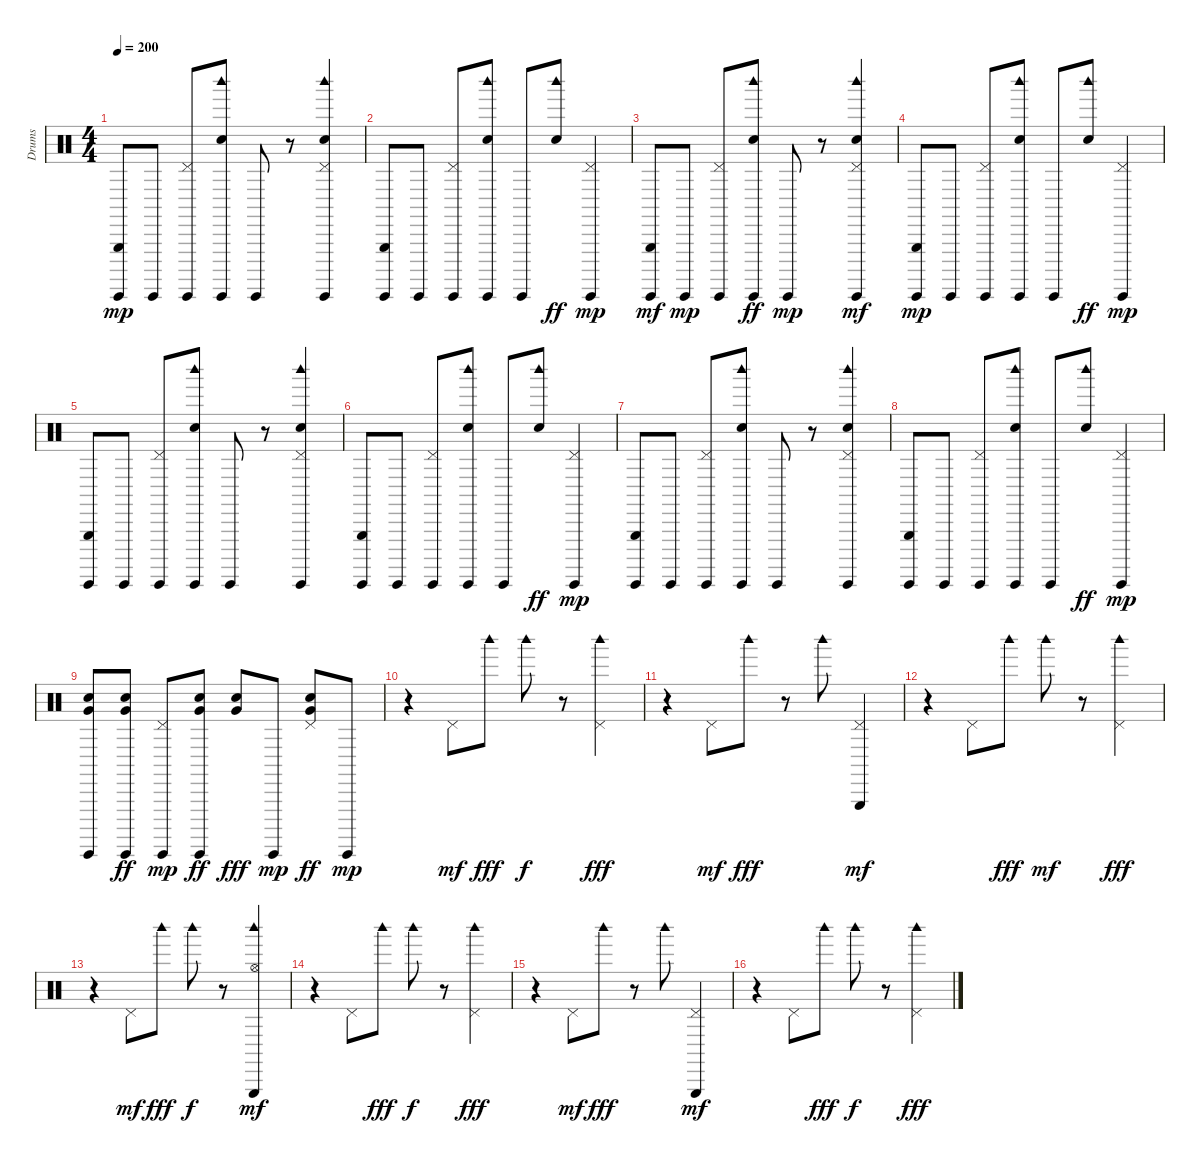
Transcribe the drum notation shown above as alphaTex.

\track ("Drums" "Drums") {instrument percussion}
\staff {score}
\articulation defaults
\ts (4 4)
\tempo 200
\clef neutral
\ks c
("Triangle (hit)" "Guiro (hit)").8{dy mp} "Guiro (hit)".8 ("Pedal Hi-Hat (hit)" "Guiro (hit)").8 ("Hand Clap (hit)" "Woodblock high (hit)" "Guiro (hit)").8 "Guiro (hit)".8 r.8 ("Hand Clap (hit)" "Woodblock high (hit)" "Pedal Hi-Hat (hit)" "Guiro (hit)").4 |
("Triangle (hit)" "Guiro (hit)").8 "Guiro (hit)".8 ("Pedal Hi-Hat (hit)" "Guiro (hit)").8 ("Hand Clap (hit)" "Woodblock high (hit)" "Guiro (hit)").8 "Guiro (hit)".8 ("Hand Clap (hit)" "Woodblock high (hit)").8{dy ff} ("Pedal Hi-Hat (hit)" "Guiro (hit)").4{dy mp} |
("Guiro (hit)" "Triangle (hit)").8{dy mf} "Guiro (hit)".8{dy mp} ("Pedal Hi-Hat (hit)" "Guiro (hit)").8 ("Guiro (hit)" "Woodblock high (hit)" "Hand Clap (hit)").8{dy ff} "Guiro (hit)".8{dy mp} r.8 ("Hand Clap (hit)" "Guiro (hit)" "Pedal Hi-Hat (hit)" "Woodblock high (hit)").4{dy mf} |
("Triangle (hit)" "Guiro (hit)").8{dy mp} "Guiro (hit)".8 ("Pedal Hi-Hat (hit)" "Guiro (hit)").8 ("Hand Clap (hit)" "Woodblock high (hit)" "Guiro (hit)").8 "Guiro (hit)".8 ("Hand Clap (hit)" "Woodblock high (hit)").8{dy ff} ("Pedal Hi-Hat (hit)" "Guiro (hit)").4{dy mp} |
("Triangle (hit)" "Guiro (hit)").8 "Guiro (hit)".8 ("Pedal Hi-Hat (hit)" "Guiro (hit)").8 ("Hand Clap (hit)" "Woodblock high (hit)" "Guiro (hit)").8 "Guiro (hit)".8 r.8 ("Hand Clap (hit)" "Woodblock high (hit)" "Pedal Hi-Hat (hit)" "Guiro (hit)").4 |
("Triangle (hit)" "Guiro (hit)").8 "Guiro (hit)".8 ("Pedal Hi-Hat (hit)" "Guiro (hit)").8 ("Hand Clap (hit)" "Woodblock high (hit)" "Guiro (hit)").8 "Guiro (hit)".8 ("Hand Clap (hit)" "Woodblock high (hit)").8{dy ff} ("Pedal Hi-Hat (hit)" "Guiro (hit)").4{dy mp} |
("Triangle (hit)" "Guiro (hit)").8 "Guiro (hit)".8 ("Pedal Hi-Hat (hit)" "Guiro (hit)").8 ("Hand Clap (hit)" "Woodblock high (hit)" "Guiro (hit)").8 "Guiro (hit)".8 r.8 ("Hand Clap (hit)" "Woodblock high (hit)" "Pedal Hi-Hat (hit)" "Guiro (hit)").4 |
("Triangle (hit)" "Guiro (hit)").8 "Guiro (hit)".8 ("Pedal Hi-Hat (hit)" "Guiro (hit)").8 ("Hand Clap (hit)" "Woodblock high (hit)" "Guiro (hit)").8 "Guiro (hit)".8 ("Hand Clap (hit)" "Woodblock high (hit)").8{dy ff} ("Pedal Hi-Hat (hit)" "Guiro (hit)").4{dy mp} |
("Guiro (hit)" "Very Low Tom (hit)" "Electric Snare (hit)").8 ("Guiro (hit)" "Very Low Tom (hit)" "Electric Snare (hit)").8{dy ff} ("Pedal Hi-Hat (hit)" "Guiro (hit)").8{dy mp} ("Guiro (hit)" "Very Low Tom (hit)" "Electric Snare (hit)").8{dy ff} ("Very Low Tom (hit)" "Electric Snare (hit)").8{dy fff} "Guiro (hit)".8{dy mp} ("Pedal Hi-Hat (hit)" "Very Low Tom (hit)" "Electric Snare (hit)").8{dy ff} "Guiro (hit)".8{dy mp} |
r.4 "Pedal Hi-Hat (hit)".8{dy mf} "Woodblock high (hit)".8{dy fff} "Woodblock high (hit)".8{dy f} r.8 ("Pedal Hi-Hat (hit)" "Woodblock high (hit)").4{dy fff} |
r.4 "Pedal Hi-Hat (hit)".8{dy mf} "Woodblock high (hit)".8{dy fff} r.8 "Woodblock high (hit)".8 ("Pedal Hi-Hat (hit)" "Triangle (hit)").4{dy mf} |
r.4 "Pedal Hi-Hat (hit)".8 "Woodblock high (hit)".8{dy fff} "Woodblock high (hit)".8{dy mf} r.8 ("Pedal Hi-Hat (hit)" "Woodblock high (hit)").4{dy fff} |
r.4 "Pedal Hi-Hat (hit)".8{dy mf} "Woodblock high (hit)".8{dy fff} "Woodblock high (hit)".8{dy f} r.8 ("Triangle (hit)" "Woodblock high (hit)" "Hi-Hat (open)").4{dy mf} |
r.4 "Pedal Hi-Hat (hit)".8 "Woodblock high (hit)".8{dy fff} "Woodblock high (hit)".8{dy f} r.8 ("Pedal Hi-Hat (hit)" "Woodblock high (hit)").4{dy fff} |
r.4 "Pedal Hi-Hat (hit)".8{dy mf} "Woodblock high (hit)".8{dy fff} r.8 "Woodblock high (hit)".8 ("Pedal Hi-Hat (hit)" "Triangle (hit)").4{dy mf} |
r.4 "Pedal Hi-Hat (hit)".8 "Woodblock high (hit)".8{dy fff} "Woodblock high (hit)".8{dy f} r.8 ("Pedal Hi-Hat (hit)" "Woodblock high (hit)").4{dy fff}
